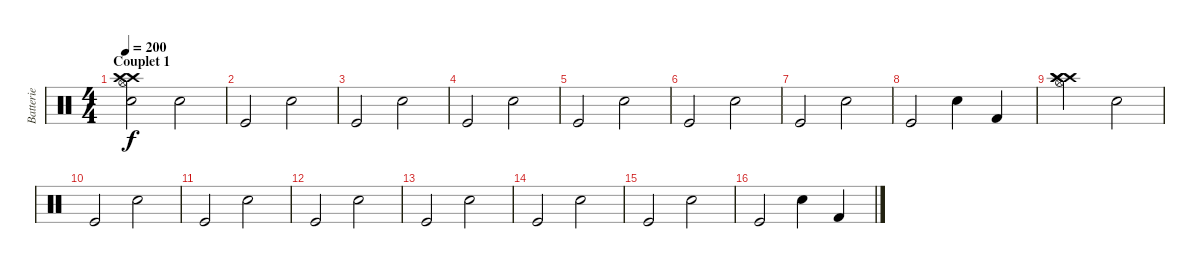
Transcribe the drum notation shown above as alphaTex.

\track ("Batterie" "Batterie") {instrument percussion}
\staff {score}
\articulation defaults
\ts (4 4)
\section ("" "Couplet 1")
\tempo 200
\clef neutral
\ks c
("Electric Snare (hit)" "Crash high (hit)" "Crash high (hit)" "Hi-Hat (open)").2{dy f} "Electric Snare (hit)".2 |
"Kick (hit)".2 "Electric Snare (hit)".2 |
"Kick (hit)".2 "Electric Snare (hit)".2 |
"Kick (hit)".2 "Electric Snare (hit)".2 |
"Kick (hit)".2 "Electric Snare (hit)".2 |
"Kick (hit)".2 "Electric Snare (hit)".2 |
"Kick (hit)".2 "Electric Snare (hit)".2 |
"Kick (hit)".2 "Electric Snare (hit)".4 "Kick (hit) 2".4 |
("Crash high (hit)" "Crash high (hit)" "Crash high (hit)" "Hi-Hat (open)").2 "Electric Snare (hit)".2 |
"Kick (hit)".2 "Electric Snare (hit)".2 |
"Kick (hit)".2 "Electric Snare (hit)".2 |
"Kick (hit)".2 "Electric Snare (hit)".2 |
"Kick (hit)".2 "Electric Snare (hit)".2 |
"Kick (hit)".2 "Electric Snare (hit)".2 |
"Kick (hit)".2 "Electric Snare (hit)".2 |
"Kick (hit)".2 "Electric Snare (hit)".4 "Kick (hit) 2".4
